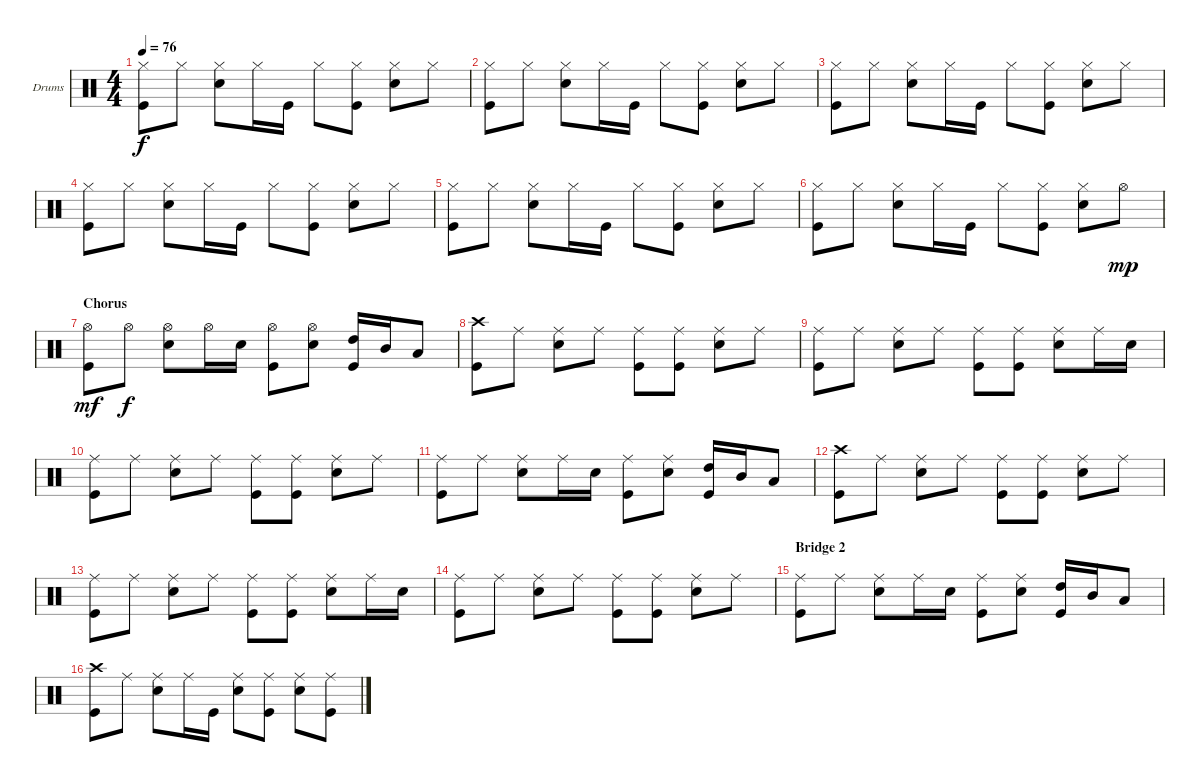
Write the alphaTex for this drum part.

\bracketExtendMode groupsimilarinstruments
\firstSystemTrackNameOrientation horizontal
\otherSystemsTrackNameOrientation horizontal
\track ("Drums" "Drums") {instrument percussion}
\staff {score}
\articulation defaults
\ts (4 4)
\tempo 76
\clef neutral
\ks c
("Hi-Hat (closed)" "Kick (hit)").8{dy f} "Hi-Hat (closed)".8 ("Hi-Hat (closed)" "Snare (hit) 2").8 "Hi-Hat (closed)".16 "Kick (hit)".16 "Hi-Hat (closed)".8 ("Hi-Hat (closed)" "Kick (hit)").8 ("Hi-Hat (closed)" "Snare (hit) 2").8 "Hi-Hat (closed)".8 |
("Hi-Hat (closed)" "Kick (hit)").8 "Hi-Hat (closed)".8 ("Hi-Hat (closed)" "Snare (hit) 2").8 "Hi-Hat (closed)".16 "Kick (hit)".16 "Hi-Hat (closed)".8 ("Hi-Hat (closed)" "Kick (hit)").8 ("Hi-Hat (closed)" "Snare (hit) 2").8 "Hi-Hat (closed)".8 |
("Hi-Hat (closed)" "Kick (hit)").8 "Hi-Hat (closed)".8 ("Hi-Hat (closed)" "Snare (hit) 2").8 "Hi-Hat (closed)".16 "Kick (hit)".16 "Hi-Hat (closed)".8 ("Hi-Hat (closed)" "Kick (hit)").8 ("Hi-Hat (closed)" "Snare (hit) 2").8 "Hi-Hat (closed)".8 |
("Hi-Hat (closed)" "Kick (hit)").8 "Hi-Hat (closed)".8 ("Hi-Hat (closed)" "Snare (hit) 2").8 "Hi-Hat (closed)".16 "Kick (hit)".16 "Hi-Hat (closed)".8 ("Hi-Hat (closed)" "Kick (hit)").8 ("Hi-Hat (closed)" "Snare (hit) 2").8 "Hi-Hat (closed)".8 |
("Hi-Hat (closed)" "Kick (hit)").8 "Hi-Hat (closed)".8 ("Hi-Hat (closed)" "Snare (hit) 2").8 "Hi-Hat (closed)".16 "Kick (hit)".16 "Hi-Hat (closed)".8 ("Hi-Hat (closed)" "Kick (hit)").8 ("Hi-Hat (closed)" "Snare (hit) 2").8 "Hi-Hat (closed)".8 |
("Hi-Hat (closed)" "Kick (hit)").8 "Hi-Hat (closed)".8 ("Hi-Hat (closed)" "Snare (hit) 2").8 "Hi-Hat (closed)".16 "Kick (hit)".16 "Hi-Hat (closed)".8 ("Hi-Hat (closed)" "Kick (hit)").8 ("Hi-Hat (closed)" "Snare (hit) 2").8 "Hi-Hat (open)".8{dy mp} |
\section ("" "Chorus")
("Hi-Hat (open)" "Kick (hit)").8{dy mf} "Hi-Hat (open)".8{dy f} ("Hi-Hat (open)" "Snare (hit) 2").8 "Hi-Hat (open)".16 "Snare (hit) 2".16 ("Hi-Hat (open)" "Kick (hit)").8 ("Hi-Hat (open)" "Snare (hit) 2").8 ("High Tom (hit)" "Kick (hit)").16 "Mid Tom (hit)".16 "Low Tom (hit)".8 |
("Crash high (hit)" "Kick (hit)").8 "Ride (middle)".8 ("Ride (middle)" "Snare (hit) 2").8 "Ride (middle)".8 ("Ride (middle)" "Kick (hit)").8 ("Ride (middle)" "Kick (hit)").8 ("Ride (middle)" "Snare (hit) 2").8 "Ride (middle)".8 |
("Ride (middle)" "Kick (hit)").8 "Ride (middle)".8 ("Ride (middle)" "Snare (hit) 2").8 "Ride (middle)".8 ("Ride (middle)" "Kick (hit)").8 ("Ride (middle)" "Kick (hit)").8 ("Ride (middle)" "Snare (hit) 2").8 "Ride (middle)".16 "Snare (hit) 2".16 |
("Ride (middle)" "Kick (hit)").8 "Ride (middle)".8 ("Ride (middle)" "Snare (hit) 2").8 "Ride (middle)".8 ("Ride (middle)" "Kick (hit)").8 ("Ride (middle)" "Kick (hit)").8 ("Ride (middle)" "Snare (hit) 2").8 "Ride (middle)".8 |
("Ride (middle)" "Kick (hit)").8 "Ride (middle)".8 ("Ride (middle)" "Snare (hit) 2").8 "Ride (middle)".16 "Snare (hit) 2".16 ("Ride (middle)" "Kick (hit)").8 ("Ride (middle)" "Snare (hit) 2").8 ("High Tom (hit)" "Kick (hit)").16 "Mid Tom (hit)".16 "Low Tom (hit)".8 |
("Crash high (hit)" "Kick (hit)").8 "Ride (middle)".8 ("Ride (middle)" "Snare (hit) 2").8 "Ride (middle)".8 ("Ride (middle)" "Kick (hit)").8 ("Ride (middle)" "Kick (hit)").8 ("Ride (middle)" "Snare (hit) 2").8 "Ride (middle)".8 |
("Ride (middle)" "Kick (hit)").8 "Ride (middle)".8 ("Ride (middle)" "Snare (hit) 2").8 "Ride (middle)".8 ("Ride (middle)" "Kick (hit)").8 ("Ride (middle)" "Kick (hit)").8 ("Ride (middle)" "Snare (hit) 2").8 "Ride (middle)".16 "Snare (hit) 2".16 |
("Ride (middle)" "Kick (hit)").8 "Ride (middle)".8 ("Ride (middle)" "Snare (hit) 2").8 "Ride (middle)".8 ("Ride (middle)" "Kick (hit)").8 ("Ride (middle)" "Kick (hit)").8 ("Ride (middle)" "Snare (hit) 2").8 "Ride (middle)".8 |
\section ("" "Bridge 2")
("Ride (middle)" "Kick (hit)").8 "Ride (middle)".8 ("Ride (middle)" "Snare (hit) 2").8 "Ride (middle)".16 "Snare (hit) 2".16 ("Ride (middle)" "Kick (hit)").8 ("Ride (middle)" "Snare (hit) 2").8 ("High Tom (hit)" "Kick (hit)").16 "Mid Tom (hit)".16 "Low Tom (hit)".8 |
("Crash high (hit)" "Kick (hit)").8 "Ride (middle)".8 ("Ride (middle)" "Snare (hit) 2").8 "Ride (middle)".16 "Kick (hit)".16 ("Ride (middle)" "Snare (hit) 2").8 ("Ride (middle)" "Kick (hit)").8 ("Ride (middle)" "Snare (hit) 2").8 ("Ride (middle)" "Kick (hit)").8
